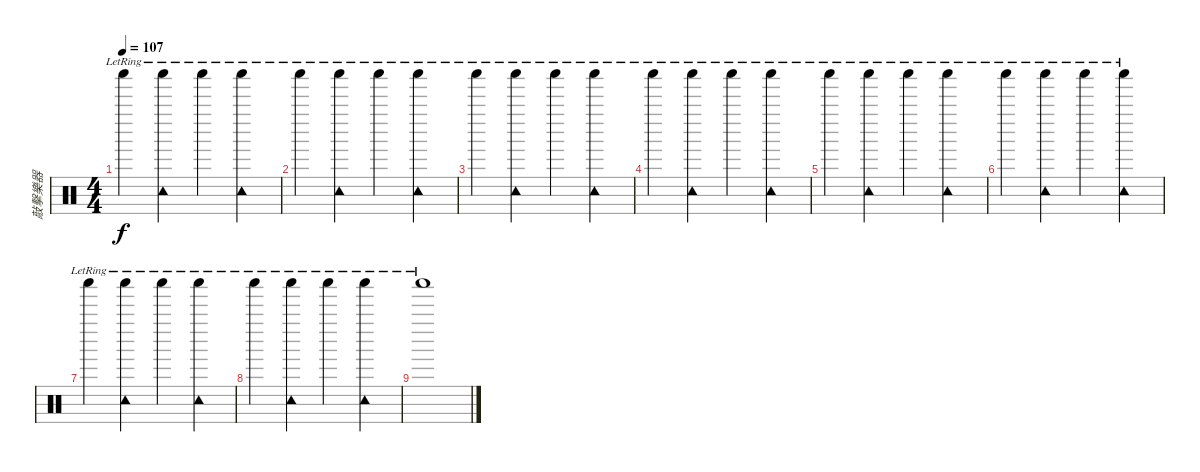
\track ("敲擊樂器" "敲擊樂器") {instrument percussion}
\staff {score}
\articulation defaults
\ts (4 4)
\tempo 107
\clef neutral
\ks c "Shaker (hit)"{lr}.4{dy f}
("Tambourine (hit)"{lr} "Shaker (hit)"{lr}).4 "Shaker (hit)"{lr}.4 ("Tambourine (hit)"{lr} "Shaker (hit)"{lr}).4 |
"Shaker (hit)"{lr}.4 ("Tambourine (hit)"{lr} "Shaker (hit)"{lr}).4 "Shaker (hit)"{lr}.4 ("Tambourine (hit)"{lr} "Shaker (hit)"{lr}).4 |
"Shaker (hit)"{lr}.4 ("Tambourine (hit)"{lr} "Shaker (hit)"{lr}).4 "Shaker (hit)"{lr}.4 ("Tambourine (hit)"{lr} "Shaker (hit)"{lr}).4 |
"Shaker (hit)"{lr}.4 ("Tambourine (hit)"{lr} "Shaker (hit)"{lr}).4 "Shaker (hit)"{lr}.4 ("Tambourine (hit)"{lr} "Shaker (hit)"{lr}).4 |
"Shaker (hit)"{lr}.4 ("Tambourine (hit)"{lr} "Shaker (hit)"{lr}).4 "Shaker (hit)"{lr}.4 ("Tambourine (hit)"{lr} "Shaker (hit)"{lr}).4 |
"Shaker (hit)"{lr}.4 ("Tambourine (hit)"{lr} "Shaker (hit)"{lr}).4 "Shaker (hit)"{lr}.4 ("Tambourine (hit)"{lr} "Shaker (hit)"{lr}).4 |
"Shaker (hit)"{lr}.4 ("Tambourine (hit)"{lr} "Shaker (hit)"{lr}).4 "Shaker (hit)"{lr}.4 ("Tambourine (hit)"{lr} "Shaker (hit)"{lr}).4 |
"Shaker (hit)"{lr}.4 ("Tambourine (hit)"{lr} "Shaker (hit)"{lr}).4 "Shaker (hit)"{lr}.4 ("Tambourine (hit)"{lr} "Shaker (hit)"{lr}).4 |
"Shaker (hit)"{lr}.1
